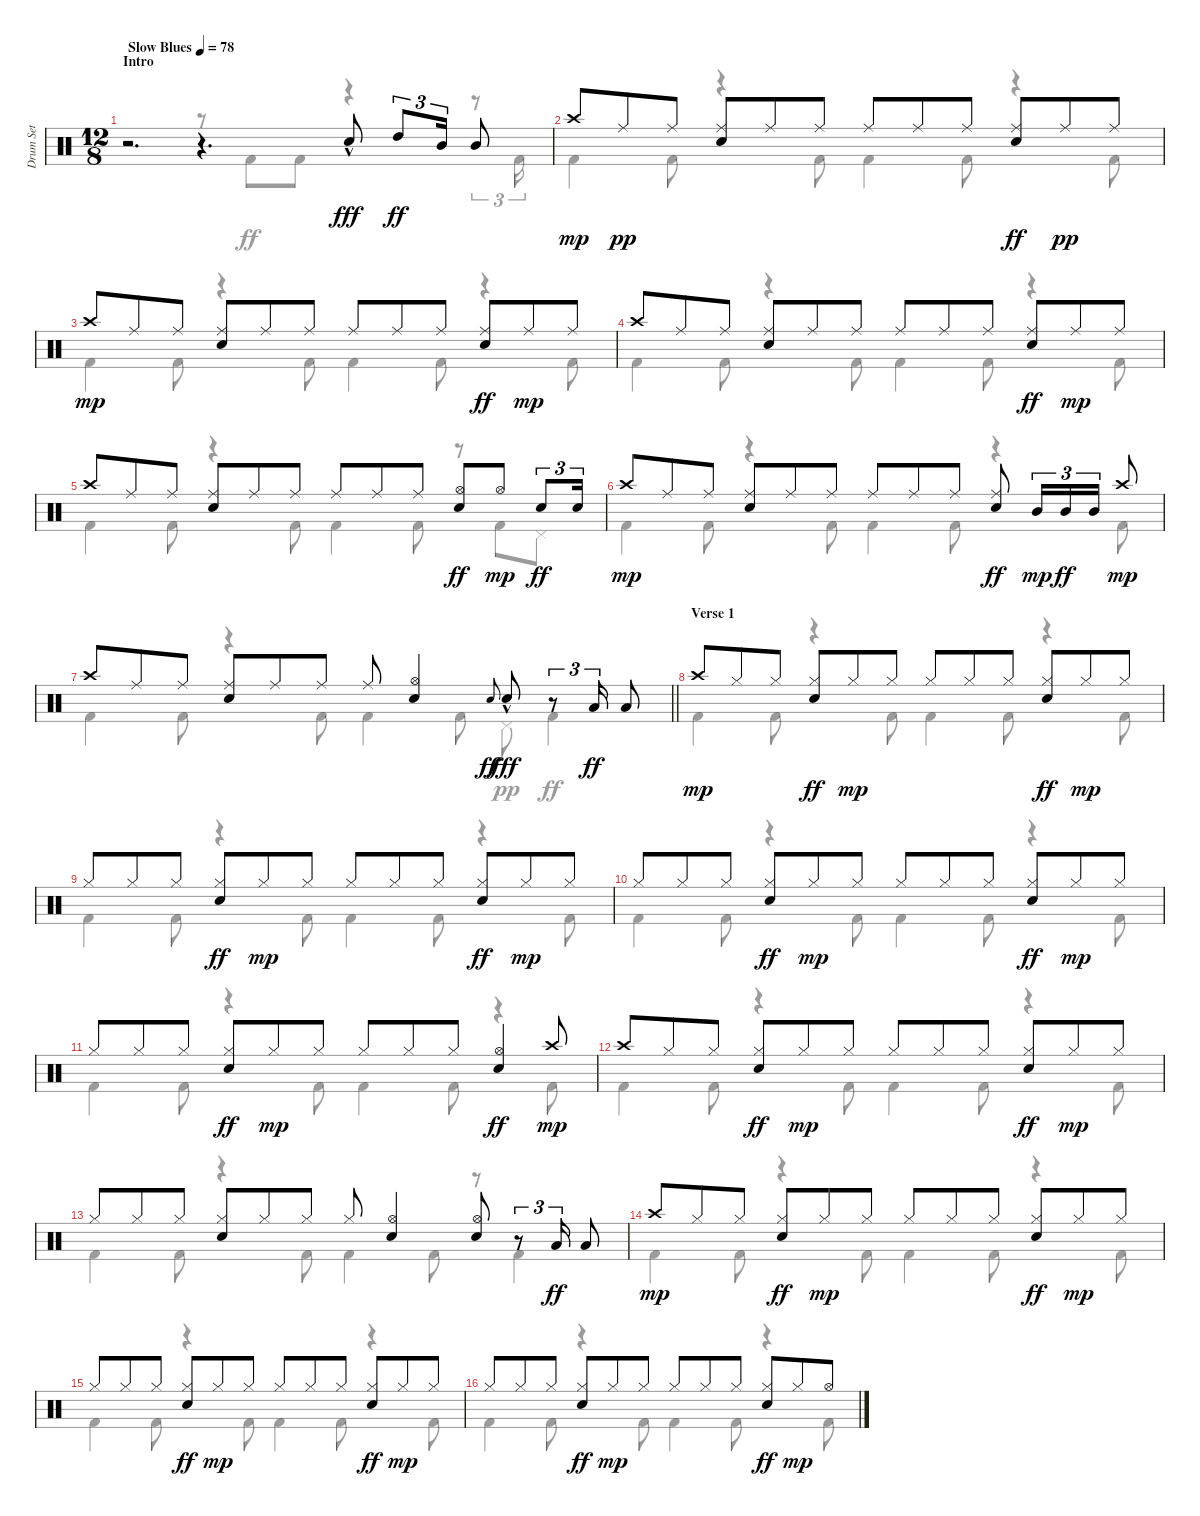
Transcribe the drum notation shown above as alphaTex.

\track ("Drum Set" "Drum Set") {instrument percussion}
\staff {score}
\articulation defaults
\voice
\ts (12 8)
\section ("" "Intro")
\tempo (78 "Slow Blues")
\clef neutral
\ks c
r.2{d dy fff} r.4{d} "Electric Snare (hit)"{hac}.8 "High Tom (hit)".8{tu (3 2) dy ff} "Mid Tom (hit)".16{tu (3 2)} "Mid Tom (hit)".8 |
"Crash high (hit)".8{dy mp} "Ride (middle)".8{dy pp} "Ride (middle)".8 ("Electric Snare (hit)" "Ride (middle)").8 "Ride (middle)".8 "Ride (middle)".8 "Ride (middle)".8 "Ride (middle)".8 "Ride (middle)".8 ("Ride (middle)" "Electric Snare (hit)").8{dy ff} "Ride (middle)".8{dy pp} "Ride (middle)".8 |
"Crash high (hit)".8{dy mp} "Ride (middle)".8 "Ride (middle)".8 ("Electric Snare (hit)" "Ride (middle)").8 "Ride (middle)".8 "Ride (middle)".8 "Ride (middle)".8 "Ride (middle)".8 "Ride (middle)".8 ("Ride (middle)" "Electric Snare (hit)").8{dy ff} "Ride (middle)".8{dy mp} "Ride (middle)".8 |
"Crash high (hit)".8 "Ride (middle)".8 "Ride (middle)".8 ("Electric Snare (hit)" "Ride (middle)").8 "Ride (middle)".8 "Ride (middle)".8 "Ride (middle)".8 "Ride (middle)".8 "Ride (middle)".8 ("Ride (middle)" "Electric Snare (hit)").8{dy ff} "Ride (middle)".8{dy mp} "Ride (middle)".8 |
"Crash high (hit)".8 "Ride (middle)".8 "Ride (middle)".8 ("Electric Snare (hit)" "Ride (middle)").8 "Ride (middle)".8 "Ride (middle)".8 "Ride (middle)".8 "Ride (middle)".8 "Ride (middle)".8 ("Hi-Hat (open)" "Electric Snare (hit)").8{dy ff} "Hi-Hat (open)".8{dy mp} "Electric Snare (hit)".8{tu (3 2) dy ff} "Electric Snare (hit)".16{tu (3 2)} |
"Crash high (hit)".8{dy mp} "Ride (middle)".8 "Ride (middle)".8 ("Electric Snare (hit)" "Ride (middle)").8 "Ride (middle)".8 "Ride (middle)".8 "Ride (middle)".8 "Ride (middle)".8 "Ride (middle)".8 ("Ride (middle)" "Electric Snare (hit)").8{dy ff} "Mid Tom (hit)".16{tu (3 2) dy mp} "Mid Tom (hit)".16{tu (3 2) dy ff} "Mid Tom (hit)".16{tu (3 2)} "Crash high (hit)".8{dy mp} |
\barLineRight lightlight "Crash high (hit)".8 "Ride (middle)".8 "Ride (middle)".8
("Electric Snare (hit)" "Ride (middle)").8 "Ride (middle)".8 "Ride (middle)".8 "Ride (middle)".8 ("Electric Snare (hit)" "Hi-Hat (open)").4 "Electric Snare (hit)".8{gr onbeat dy ff} "Electric Snare (hit)"{hac}.8{dy fff} r.8{tu (3 2)} "Low Tom (hit)".16{tu (3 2) dy ff} "Low Tom (hit)".8 |
\section ("" "Verse 1")
"Crash high (hit)".8{dy mp} "Hi-Hat (closed)".8 "Hi-Hat (closed)".8 ("Hi-Hat (closed)" "Electric Snare (hit)").8{dy ff} "Hi-Hat (closed)".8{dy mp} "Hi-Hat (closed)".8 "Hi-Hat (closed)".8 "Hi-Hat (closed)".8 "Hi-Hat (closed)".8 ("Hi-Hat (closed)" "Electric Snare (hit)").8{dy ff} "Hi-Hat (closed)".8{dy mp} "Hi-Hat (closed)".8 |
"Hi-Hat (closed)".8 "Hi-Hat (closed)".8 "Hi-Hat (closed)".8 ("Hi-Hat (closed)" "Electric Snare (hit)").8{dy ff} "Hi-Hat (closed)".8{dy mp} "Hi-Hat (closed)".8 "Hi-Hat (closed)".8 "Hi-Hat (closed)".8 "Hi-Hat (closed)".8 ("Hi-Hat (closed)" "Electric Snare (hit)").8{dy ff} "Hi-Hat (closed)".8{dy mp} "Hi-Hat (closed)".8 |
"Hi-Hat (closed)".8 "Hi-Hat (closed)".8 "Hi-Hat (closed)".8 ("Hi-Hat (closed)" "Electric Snare (hit)").8{dy ff} "Hi-Hat (closed)".8{dy mp} "Hi-Hat (closed)".8 "Hi-Hat (closed)".8 "Hi-Hat (closed)".8 "Hi-Hat (closed)".8 ("Hi-Hat (closed)" "Electric Snare (hit)").8{dy ff} "Hi-Hat (closed)".8{dy mp} "Hi-Hat (closed)".8 |
"Hi-Hat (closed)".8 "Hi-Hat (closed)".8 "Hi-Hat (closed)".8 ("Hi-Hat (closed)" "Electric Snare (hit)").8{dy ff} "Hi-Hat (closed)".8{dy mp} "Hi-Hat (closed)".8 "Hi-Hat (closed)".8 "Hi-Hat (closed)".8 "Hi-Hat (closed)".8 ("Hi-Hat (open)" "Electric Snare (hit)").4{dy ff} "Crash high (hit)".8{dy mp} |
"Crash high (hit)".8 "Hi-Hat (closed)".8 "Hi-Hat (closed)".8 ("Hi-Hat (closed)" "Electric Snare (hit)").8{dy ff} "Hi-Hat (closed)".8{dy mp} "Hi-Hat (closed)".8 "Hi-Hat (closed)".8 "Hi-Hat (closed)".8 "Hi-Hat (closed)".8 ("Hi-Hat (closed)" "Electric Snare (hit)").8{dy ff} "Hi-Hat (closed)".8{dy mp} "Hi-Hat (closed)".8 |
"Hi-Hat (closed)".8 "Hi-Hat (closed)".8 "Hi-Hat (closed)".8 ("Electric Snare (hit)" "Hi-Hat (closed)").8 "Hi-Hat (closed)".8 "Hi-Hat (closed)".8 "Hi-Hat (closed)".8 ("Electric Snare (hit)" "Hi-Hat (open)").4 ("Electric Snare (hit)" "Hi-Hat (open)").8 r.8{tu (3 2)} "Low Tom (hit)".16{tu (3 2) dy ff} "Low Tom (hit)".8 |
"Crash high (hit)".8{dy mp} "Hi-Hat (closed)".8 "Hi-Hat (closed)".8 ("Hi-Hat (closed)" "Electric Snare (hit)").8{dy ff} "Hi-Hat (closed)".8{dy mp} "Hi-Hat (closed)".8 "Hi-Hat (closed)".8 "Hi-Hat (closed)".8 "Hi-Hat (closed)".8 ("Hi-Hat (closed)" "Electric Snare (hit)").8{dy ff} "Hi-Hat (closed)".8{dy mp} "Hi-Hat (closed)".8 |
"Hi-Hat (closed)".8 "Hi-Hat (closed)".8 "Hi-Hat (closed)".8 ("Hi-Hat (closed)" "Electric Snare (hit)").8{dy ff} "Hi-Hat (closed)".8{dy mp} "Hi-Hat (closed)".8 "Hi-Hat (closed)".8 "Hi-Hat (closed)".8 "Hi-Hat (closed)".8 ("Hi-Hat (closed)" "Electric Snare (hit)").8{dy ff} "Hi-Hat (closed)".8{dy mp} "Hi-Hat (closed)".8 |
"Hi-Hat (closed)".8 "Hi-Hat (closed)".8 "Hi-Hat (closed)".8 ("Hi-Hat (closed)" "Electric Snare (hit)").8{dy ff} "Hi-Hat (closed)".8{dy mp} "Hi-Hat (closed)".8 "Hi-Hat (closed)".8 "Hi-Hat (closed)".8 "Hi-Hat (closed)".8 ("Hi-Hat (closed)" "Electric Snare (hit)").8{dy ff} "Hi-Hat (closed)".8{dy mp} "Hi-Hat (open)".8
\voice
\clef neutral
\ottava regular
\simile none
\ks c
r.2{d dy ff} r.8 "Kick (hit) 2".8 "Kick (hit) 2".8 r.4 r.8{tu (3 2)} "Kick (hit) 2".16{tu (3 2)} |
"Kick (hit) 2".4 "Kick (hit) 2".8 r.4 "Kick (hit) 2".8 "Kick (hit) 2".4 "Kick (hit) 2".8 r.4 "Kick (hit) 2".8 |
"Kick (hit) 2".4 "Kick (hit) 2".8 r.4 "Kick (hit) 2".8 "Kick (hit) 2".4 "Kick (hit) 2".8 r.4 "Kick (hit) 2".8 |
"Kick (hit) 2".4 "Kick (hit) 2".8 r.4 "Kick (hit) 2".8 "Kick (hit) 2".4 "Kick (hit) 2".8 r.4 "Kick (hit) 2".8 |
"Kick (hit) 2".4 "Kick (hit) 2".8 r.4 "Kick (hit) 2".8 "Kick (hit) 2".4 "Kick (hit) 2".8 r.8 "Kick (hit) 2".8 "Pedal Hi-Hat (hit)".8 |
"Kick (hit) 2".4 "Kick (hit) 2".8 r.4 "Kick (hit) 2".8 "Kick (hit) 2".4 "Kick (hit) 2".8 r.4 "Kick (hit) 2".8 |
\barLineRight lightlight "Kick (hit) 2".4 "Kick (hit) 2".8
r.4 "Kick (hit) 2".8 "Kick (hit) 2".4 "Kick (hit) 2".8 "Pedal Hi-Hat (hit)".8{dy pp} "Kick (hit) 2".4{dy ff} |
"Kick (hit) 2".4 "Kick (hit) 2".8 r.4 "Kick (hit) 2".8 "Kick (hit) 2".4 "Kick (hit) 2".8 r.4 "Kick (hit) 2".8 |
"Kick (hit) 2".4 "Kick (hit) 2".8 r.4 "Kick (hit) 2".8 "Kick (hit) 2".4 "Kick (hit) 2".8 r.4 "Kick (hit) 2".8 |
"Kick (hit) 2".4 "Kick (hit) 2".8 r.4 "Kick (hit) 2".8 "Kick (hit) 2".4 "Kick (hit) 2".8 r.4 "Kick (hit) 2".8 |
"Kick (hit) 2".4 "Kick (hit) 2".8 r.4 "Kick (hit) 2".8 "Kick (hit) 2".4 "Kick (hit) 2".8 r.4 "Kick (hit) 2".8 |
"Kick (hit) 2".4 "Kick (hit) 2".8 r.4 "Kick (hit) 2".8 "Kick (hit) 2".4 "Kick (hit) 2".8 r.4 "Kick (hit) 2".8 |
"Kick (hit) 2".4 "Kick (hit) 2".8 r.4 "Kick (hit) 2".8 "Kick (hit) 2".4 "Kick (hit) 2".8 r.8 "Kick (hit) 2".4 |
"Kick (hit) 2".4 "Kick (hit) 2".8 r.4 "Kick (hit) 2".8 "Kick (hit) 2".4 "Kick (hit) 2".8 r.4 "Kick (hit) 2".8 |
"Kick (hit) 2".4 "Kick (hit) 2".8 r.4 "Kick (hit) 2".8 "Kick (hit) 2".4 "Kick (hit) 2".8 r.4 "Kick (hit) 2".8 |
"Kick (hit) 2".4 "Kick (hit) 2".8 r.4 "Kick (hit) 2".8 "Kick (hit) 2".4 "Kick (hit) 2".8 r.4 "Kick (hit) 2".8
